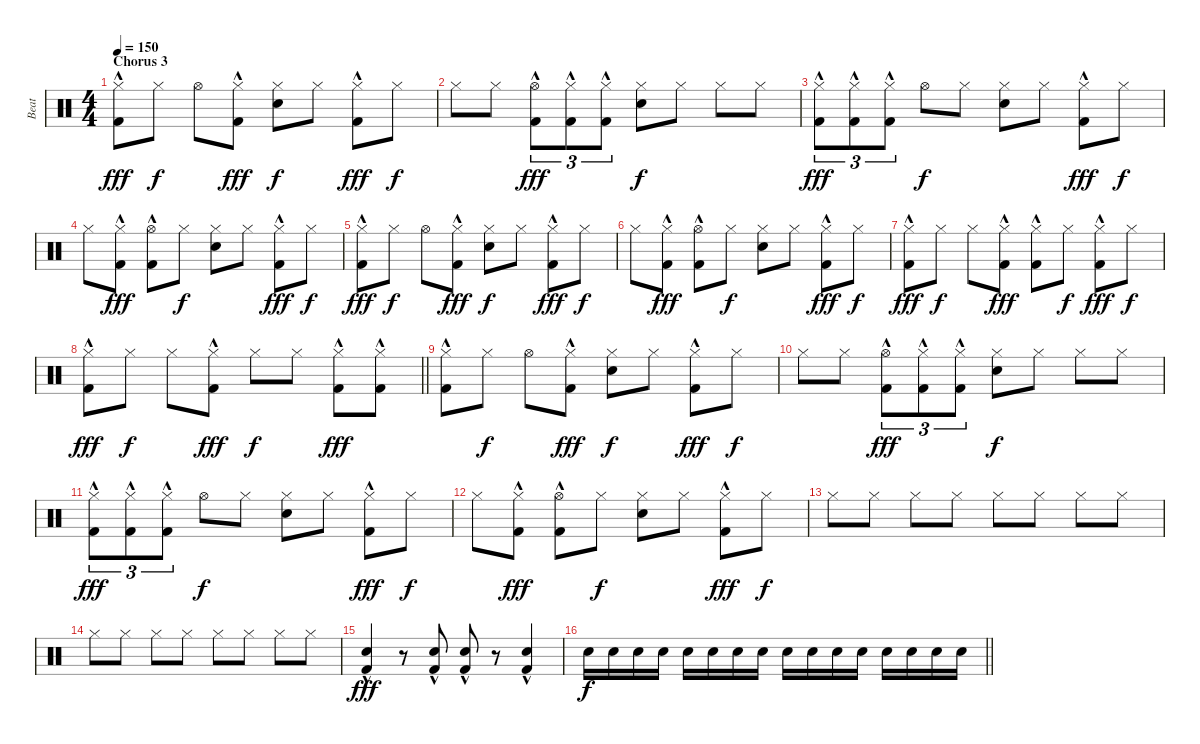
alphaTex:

\track ("Beat" "Beat") {instrument percussion}
\staff {score}
\articulation defaults
\ts (4 4)
\section ("" "Chorus 3")
\tempo 150
\clef neutral
\ks c
("Hi-Hat (closed)" "Kick (hit) 2"{hac}).8{dy fff} "Hi-Hat (closed)".8{dy f} "Hi-Hat (open)".8 ("Hi-Hat (closed)" "Kick (hit) 2"{hac}).8{dy fff} ("Hi-Hat (closed)" "Hand Clap (hit)").8{dy f} "Hi-Hat (closed)".8 ("Hi-Hat (closed)" "Kick (hit) 2"{hac}).8{dy fff} "Hi-Hat (closed)".8{dy f} |
"Hi-Hat (closed)".8 "Hi-Hat (closed)".8 ("Hi-Hat (open)" "Kick (hit) 2"{hac}).8{tu (3 2) dy fff} ("Hi-Hat (closed)" "Kick (hit) 2"{hac}).8{tu (3 2)} ("Hi-Hat (closed)" "Kick (hit) 2"{hac}).8{tu (3 2)} ("Hi-Hat (closed)" "Hand Clap (hit)").8{dy f} "Hi-Hat (closed)".8 "Hi-Hat (closed)".8 "Hi-Hat (closed)".8 |
("Hi-Hat (closed)" "Kick (hit) 2"{hac}).8{tu (3 2) dy fff} ("Hi-Hat (closed)" "Kick (hit) 2"{hac}).8{tu (3 2)} ("Hi-Hat (closed)" "Kick (hit) 2"{hac}).8{tu (3 2)} "Hi-Hat (open)".8{dy f} "Hi-Hat (closed)".8 ("Hi-Hat (closed)" "Hand Clap (hit)").8 "Hi-Hat (closed)".8 ("Hi-Hat (closed)" "Kick (hit) 2"{hac}).8{dy fff} "Hi-Hat (closed)".8{dy f} |
"Hi-Hat (closed)".8 ("Hi-Hat (closed)" "Kick (hit) 2"{hac}).8{dy fff} ("Hi-Hat (open)" "Kick (hit) 2"{hac}).8 "Hi-Hat (closed)".8{dy f} ("Hi-Hat (closed)" "Hand Clap (hit)").8 "Hi-Hat (closed)".8 ("Hi-Hat (closed)" "Kick (hit) 2"{hac}).8{dy fff} "Hi-Hat (closed)".8{dy f} |
("Hi-Hat (closed)" "Kick (hit) 2"{hac}).8{dy fff} "Hi-Hat (closed)".8{dy f} "Hi-Hat (open)".8 ("Hi-Hat (closed)" "Kick (hit) 2"{hac}).8{dy fff} ("Hi-Hat (closed)" "Hand Clap (hit)").8{dy f} "Hi-Hat (closed)".8 ("Hi-Hat (closed)" "Kick (hit) 2"{hac}).8{dy fff} "Hi-Hat (closed)".8{dy f} |
"Hi-Hat (closed)".8 ("Hi-Hat (closed)" "Kick (hit) 2"{hac}).8{dy fff} ("Hi-Hat (open)" "Kick (hit) 2"{hac}).8 "Hi-Hat (closed)".8{dy f} ("Hi-Hat (closed)" "Hand Clap (hit)").8 "Hi-Hat (closed)".8 ("Hi-Hat (closed)" "Kick (hit) 2"{hac}).8{dy fff} "Hi-Hat (closed)".8{dy f} |
("Hi-Hat (closed)" "Kick (hit) 2"{hac}).8{dy fff} "Hi-Hat (closed)".8{dy f} "Hi-Hat (closed)".8 ("Hi-Hat (closed)" "Kick (hit) 2"{hac}).8{dy fff} ("Hi-Hat (closed)" "Kick (hit) 2"{hac}).8 "Hi-Hat (closed)".8{dy f} ("Hi-Hat (closed)" "Kick (hit) 2"{hac}).8{dy fff} "Hi-Hat (closed)".8{dy f} |
\barLineRight lightlight
("Hi-Hat (closed)" "Kick (hit) 2"{hac}).8{dy fff} "Hi-Hat (closed)".8{dy f} "Hi-Hat (closed)".8 ("Hi-Hat (closed)" "Kick (hit) 2"{hac}).8{dy fff} "Hi-Hat (closed)".8{dy f} "Hi-Hat (closed)".8 ("Hi-Hat (closed)" "Kick (hit) 2"{hac}).8{dy fff} ("Hi-Hat (closed)" "Kick (hit) 2"{hac}).8 |
("Hi-Hat (closed)" "Kick (hit) 2"{hac}).8 "Hi-Hat (closed)".8{dy f} "Hi-Hat (open)".8 ("Hi-Hat (closed)" "Kick (hit) 2"{hac}).8{dy fff} ("Hi-Hat (closed)" "Hand Clap (hit)").8{dy f} "Hi-Hat (closed)".8 ("Hi-Hat (closed)" "Kick (hit) 2"{hac}).8{dy fff} "Hi-Hat (closed)".8{dy f} |
"Hi-Hat (closed)".8 "Hi-Hat (closed)".8 ("Hi-Hat (open)" "Kick (hit) 2"{hac}).8{tu (3 2) dy fff} ("Hi-Hat (closed)" "Kick (hit) 2"{hac}).8{tu (3 2)} ("Hi-Hat (closed)" "Kick (hit) 2"{hac}).8{tu (3 2)} ("Hi-Hat (closed)" "Hand Clap (hit)").8{dy f} "Hi-Hat (closed)".8 "Hi-Hat (closed)".8 "Hi-Hat (closed)".8 |
("Hi-Hat (closed)" "Kick (hit) 2"{hac}).8{tu (3 2) dy fff} ("Hi-Hat (closed)" "Kick (hit) 2"{hac}).8{tu (3 2)} ("Hi-Hat (closed)" "Kick (hit) 2"{hac}).8{tu (3 2)} "Hi-Hat (open)".8{dy f} "Hi-Hat (closed)".8 ("Hi-Hat (closed)" "Hand Clap (hit)").8 "Hi-Hat (closed)".8 ("Hi-Hat (closed)" "Kick (hit) 2"{hac}).8{dy fff} "Hi-Hat (closed)".8{dy f} |
"Hi-Hat (closed)".8 ("Hi-Hat (closed)" "Kick (hit) 2"{hac}).8{dy fff} ("Hi-Hat (open)" "Kick (hit) 2"{hac}).8 "Hi-Hat (closed)".8{dy f} ("Hi-Hat (closed)" "Hand Clap (hit)").8 "Hi-Hat (closed)".8 ("Hi-Hat (closed)" "Kick (hit) 2"{hac}).8{dy fff} "Hi-Hat (closed)".8{dy f} |
"Hi-Hat (closed)".8 "Hi-Hat (closed)".8 "Hi-Hat (closed)".8 "Hi-Hat (closed)".8 "Hi-Hat (closed)".8 "Hi-Hat (closed)".8 "Hi-Hat (closed)".8 "Hi-Hat (closed)".8 |
"Hi-Hat (closed)".8 "Hi-Hat (closed)".8 "Hi-Hat (closed)".8 "Hi-Hat (closed)".8 "Hi-Hat (closed)".8 "Hi-Hat (closed)".8 "Hi-Hat (closed)".8 "Hi-Hat (closed)".8 |
("Snare (hit) 2" "Kick (hit) 2"{hac}).4{dy fff} r.8 ("Snare (hit) 2" "Kick (hit) 2"{hac}).8 ("Snare (hit) 2" "Kick (hit) 2"{hac}).8 r.8 ("Snare (hit) 2" "Kick (hit) 2"{hac}).4 |
\barLineRight lightlight "Snare (hit) 2".16{dy f} "Snare (hit) 2".16 "Snare (hit) 2".16 "Snare (hit) 2".16 "Snare (hit) 2".16 "Snare (hit) 2".16 "Snare (hit) 2".16 "Snare (hit) 2".16 "Snare (hit) 2".16 "Snare (hit) 2".16 "Snare (hit) 2".16 "Snare (hit) 2".16 "Snare (hit) 2".16 "Snare (hit) 2".16 "Snare (hit) 2".16 "Snare (hit) 2".16
